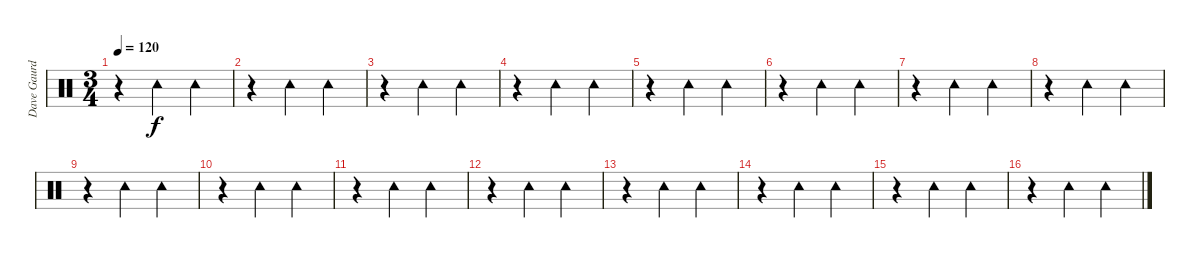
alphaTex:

\track ("Dave Gaurd" "Dave Gaurd") {instrument percussion}
\staff {score}
\articulation defaults
\ts (3 4)
\tempo 120
\clef neutral
\ks c
r.4{dy f} "Tambourine (hit)".4 "Tambourine (hit)".4 |
r.4 "Tambourine (hit)".4 "Tambourine (hit)".4 |
r.4 "Tambourine (hit)".4 "Tambourine (hit)".4 |
r.4 "Tambourine (hit)".4 "Tambourine (hit)".4 |
r.4 "Tambourine (hit)".4 "Tambourine (hit)".4 |
r.4 "Tambourine (hit)".4 "Tambourine (hit)".4 |
r.4 "Tambourine (hit)".4 "Tambourine (hit)".4 |
r.4 "Tambourine (hit)".4 "Tambourine (hit)".4 |
r.4 "Tambourine (hit)".4 "Tambourine (hit)".4 |
r.4 "Tambourine (hit)".4 "Tambourine (hit)".4 |
r.4 "Tambourine (hit)".4 "Tambourine (hit)".4 |
r.4 "Tambourine (hit)".4 "Tambourine (hit)".4 |
r.4 "Tambourine (hit)".4 "Tambourine (hit)".4 |
r.4 "Tambourine (hit)".4 "Tambourine (hit)".4 |
r.4 "Tambourine (hit)".4 "Tambourine (hit)".4 |
r.4 "Tambourine (hit)".4 "Tambourine (hit)".4
